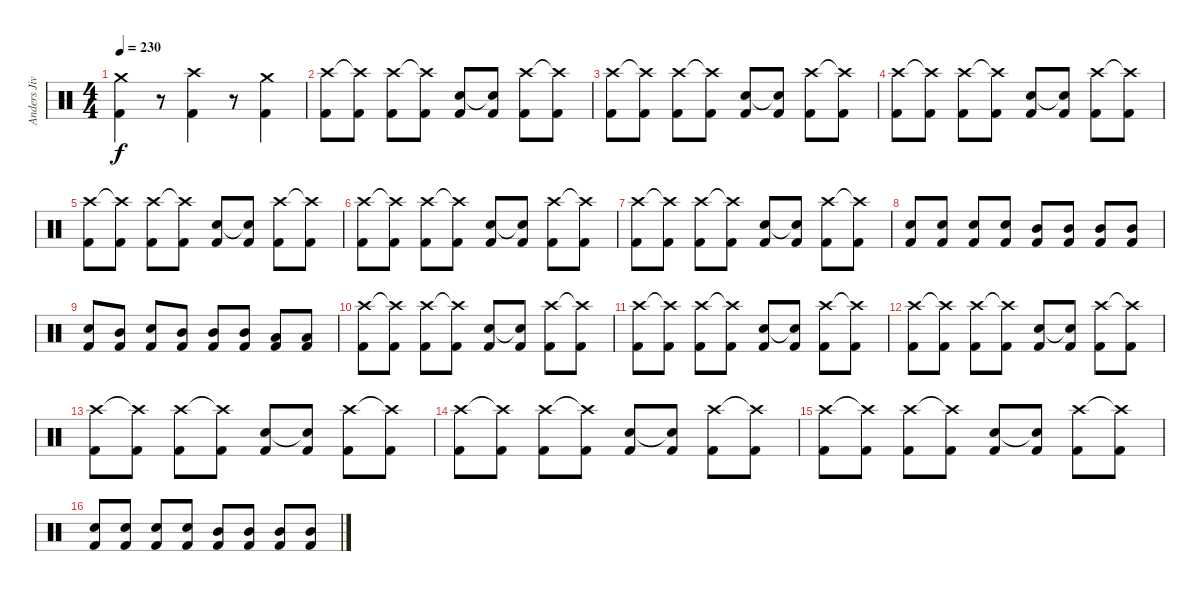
\track ("Anders Jivarp" "Anders Jiv") {instrument percussion}
\staff {score}
\articulation defaults
\ts (4 4)
\tempo 230
\clef neutral
\ks c
("Kick (hit) 2" "Crash medium (hit)").4{dy f} r.8 ("Kick (hit) 2" "Crash high (hit)").4 r.8 ("Kick (hit) 2" "Crash medium (hit)").4 |
("Kick (hit) 2" "Crash high (hit)").8 ("Kick (hit) 2" "Crash high (hit)"{t}).8 ("Kick (hit) 2" "Crash high (hit)").8 ("Kick (hit) 2" "Crash high (hit)"{t}).8 ("Kick (hit) 2" "Electric Snare (hit)").8 ("Kick (hit) 2" "Electric Snare (hit)"{t}).8 ("Kick (hit) 2" "Crash high (hit)").8 ("Kick (hit) 2" "Crash high (hit)"{t}).8 |
("Kick (hit) 2" "Crash high (hit)").8 ("Kick (hit) 2" "Crash high (hit)"{t}).8 ("Kick (hit) 2" "Crash high (hit)").8 ("Kick (hit) 2" "Crash high (hit)"{t}).8 ("Kick (hit) 2" "Electric Snare (hit)").8 ("Kick (hit) 2" "Electric Snare (hit)"{t}).8 ("Kick (hit) 2" "Crash high (hit)").8 ("Kick (hit) 2" "Crash high (hit)"{t}).8 |
("Kick (hit) 2" "Crash high (hit)").8 ("Kick (hit) 2" "Crash high (hit)"{t}).8 ("Kick (hit) 2" "Crash high (hit)").8 ("Kick (hit) 2" "Crash high (hit)"{t}).8 ("Kick (hit) 2" "Electric Snare (hit)").8 ("Kick (hit) 2" "Electric Snare (hit)"{t}).8 ("Kick (hit) 2" "Crash high (hit)").8 ("Kick (hit) 2" "Crash high (hit)"{t}).8 |
("Kick (hit) 2" "Crash high (hit)").8 ("Kick (hit) 2" "Crash high (hit)"{t}).8 ("Kick (hit) 2" "Crash high (hit)").8 ("Kick (hit) 2" "Crash high (hit)"{t}).8 ("Kick (hit) 2" "Electric Snare (hit)").8 ("Kick (hit) 2" "Electric Snare (hit)"{t}).8 ("Kick (hit) 2" "Crash high (hit)").8 ("Kick (hit) 2" "Crash high (hit)"{t}).8 |
("Kick (hit) 2" "Crash high (hit)").8 ("Kick (hit) 2" "Crash high (hit)"{t}).8 ("Kick (hit) 2" "Crash high (hit)").8 ("Kick (hit) 2" "Crash high (hit)"{t}).8 ("Kick (hit) 2" "Electric Snare (hit)").8 ("Kick (hit) 2" "Electric Snare (hit)"{t}).8 ("Kick (hit) 2" "Crash high (hit)").8 ("Kick (hit) 2" "Crash high (hit)"{t}).8 |
("Kick (hit) 2" "Crash high (hit)").8 ("Kick (hit) 2" "Crash high (hit)"{t}).8 ("Kick (hit) 2" "Crash high (hit)").8 ("Kick (hit) 2" "Crash high (hit)"{t}).8 ("Kick (hit) 2" "Electric Snare (hit)").8 ("Kick (hit) 2" "Electric Snare (hit)"{t}).8 ("Kick (hit) 2" "Crash high (hit)").8 ("Kick (hit) 2" "Crash high (hit)"{t}).8 |
("Kick (hit) 2" "Electric Snare (hit)").8 ("Kick (hit) 2" "Electric Snare (hit)").8 ("Kick (hit) 2" "Electric Snare (hit)").8 ("Kick (hit) 2" "Electric Snare (hit)").8 ("Kick (hit) 2" "Mid Tom (hit)").8 ("Kick (hit) 2" "Mid Tom (hit)").8 ("Kick (hit) 2" "Mid Tom (hit)").8 ("Kick (hit) 2" "Mid Tom (hit)").8 |
("Kick (hit) 2" "Electric Snare (hit)").8 ("Kick (hit) 2" "Mid Tom (hit)").8 ("Kick (hit) 2" "Electric Snare (hit)").8 ("Kick (hit) 2" "Mid Tom (hit)").8 ("Kick (hit) 2" "Mid Tom (hit)").8 ("Kick (hit) 2" "Mid Tom (hit)").8 ("Kick (hit) 2" "Low Tom (hit)").8 ("Kick (hit) 2" "Low Tom (hit)").8 |
("Kick (hit) 2" "Crash high (hit)").8 ("Kick (hit) 2" "Crash high (hit)"{t}).8 ("Kick (hit) 2" "Crash high (hit)").8 ("Kick (hit) 2" "Crash high (hit)"{t}).8 ("Kick (hit) 2" "Electric Snare (hit)").8 ("Kick (hit) 2" "Electric Snare (hit)"{t}).8 ("Kick (hit) 2" "Crash high (hit)").8 ("Kick (hit) 2" "Crash high (hit)"{t}).8 |
("Kick (hit) 2" "Crash high (hit)").8 ("Kick (hit) 2" "Crash high (hit)"{t}).8 ("Kick (hit) 2" "Crash high (hit)").8 ("Kick (hit) 2" "Crash high (hit)"{t}).8 ("Kick (hit) 2" "Electric Snare (hit)").8 ("Kick (hit) 2" "Electric Snare (hit)"{t}).8 ("Kick (hit) 2" "Crash high (hit)").8 ("Kick (hit) 2" "Crash high (hit)"{t}).8 |
("Kick (hit) 2" "Crash high (hit)").8 ("Kick (hit) 2" "Crash high (hit)"{t}).8 ("Kick (hit) 2" "Crash high (hit)").8 ("Kick (hit) 2" "Crash high (hit)"{t}).8 ("Kick (hit) 2" "Electric Snare (hit)").8 ("Kick (hit) 2" "Electric Snare (hit)"{t}).8 ("Kick (hit) 2" "Crash high (hit)").8 ("Kick (hit) 2" "Crash high (hit)"{t}).8 |
("Kick (hit) 2" "Crash high (hit)").8 ("Kick (hit) 2" "Crash high (hit)"{t}).8 ("Kick (hit) 2" "Crash high (hit)").8 ("Kick (hit) 2" "Crash high (hit)"{t}).8 ("Kick (hit) 2" "Electric Snare (hit)").8 ("Kick (hit) 2" "Electric Snare (hit)"{t}).8 ("Kick (hit) 2" "Crash high (hit)").8 ("Kick (hit) 2" "Crash high (hit)"{t}).8 |
("Kick (hit) 2" "Crash high (hit)").8 ("Kick (hit) 2" "Crash high (hit)"{t}).8 ("Kick (hit) 2" "Crash high (hit)").8 ("Kick (hit) 2" "Crash high (hit)"{t}).8 ("Kick (hit) 2" "Electric Snare (hit)").8 ("Kick (hit) 2" "Electric Snare (hit)"{t}).8 ("Kick (hit) 2" "Crash high (hit)").8 ("Kick (hit) 2" "Crash high (hit)"{t}).8 |
("Kick (hit) 2" "Crash high (hit)").8 ("Kick (hit) 2" "Crash high (hit)"{t}).8 ("Kick (hit) 2" "Crash high (hit)").8 ("Kick (hit) 2" "Crash high (hit)"{t}).8 ("Kick (hit) 2" "Electric Snare (hit)").8 ("Kick (hit) 2" "Electric Snare (hit)"{t}).8 ("Kick (hit) 2" "Crash high (hit)").8 ("Kick (hit) 2" "Crash high (hit)"{t}).8 |
("Kick (hit) 2" "Electric Snare (hit)").8 ("Kick (hit) 2" "Electric Snare (hit)").8 ("Kick (hit) 2" "Electric Snare (hit)").8 ("Kick (hit) 2" "Electric Snare (hit)").8 ("Kick (hit) 2" "Mid Tom (hit)").8 ("Kick (hit) 2" "Mid Tom (hit)").8 ("Kick (hit) 2" "Mid Tom (hit)").8 ("Kick (hit) 2" "Mid Tom (hit)").8
